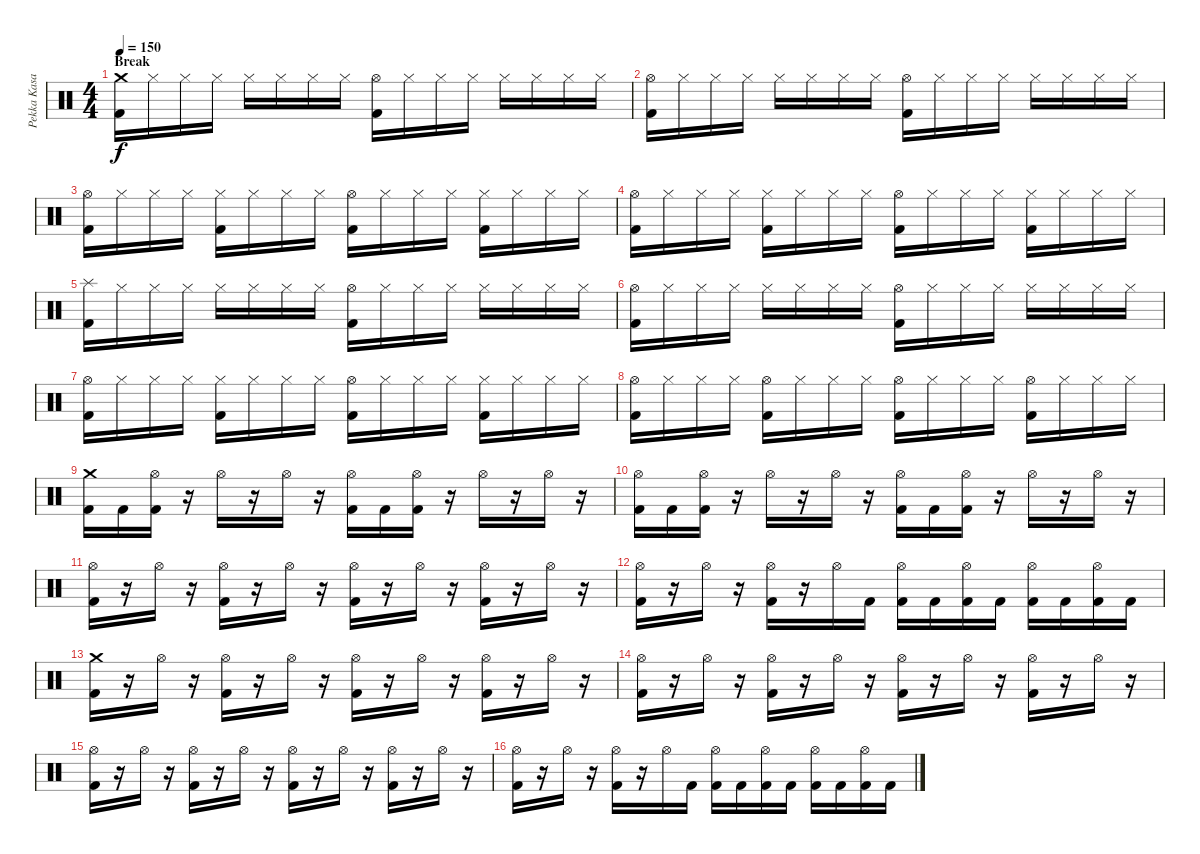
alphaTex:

\track ("Pekka Kasari" "Pekka Kasa") {instrument percussion}
\staff {score}
\articulation defaults
\ts (4 4)
\section ("" "Break")
\tempo 150
\clef neutral
\ks c
("Crash medium (hit)" "Kick (hit) 2").16{dy f} "Hi-Hat (closed)".16 "Hi-Hat (closed)".16 "Hi-Hat (closed)".16 "Hi-Hat (closed)".16 "Hi-Hat (closed)".16 "Hi-Hat (closed)".16 "Hi-Hat (closed)".16 ("Hi-Hat (open)" "Kick (hit) 2").16 "Hi-Hat (closed)".16 "Hi-Hat (closed)".16 "Hi-Hat (closed)".16 "Hi-Hat (closed)".16 "Hi-Hat (closed)".16 "Hi-Hat (closed)".16 "Hi-Hat (closed)".16 |
("Hi-Hat (open)" "Kick (hit) 2").16 "Hi-Hat (closed)".16 "Hi-Hat (closed)".16 "Hi-Hat (closed)".16 "Hi-Hat (closed)".16 "Hi-Hat (closed)".16 "Hi-Hat (closed)".16 "Hi-Hat (closed)".16 ("Hi-Hat (open)" "Kick (hit) 2").16 "Hi-Hat (closed)".16 "Hi-Hat (closed)".16 "Hi-Hat (closed)".16 "Hi-Hat (closed)".16 "Hi-Hat (closed)".16 "Hi-Hat (closed)".16 "Hi-Hat (closed)".16 |
("Hi-Hat (open)" "Kick (hit) 2").16 "Hi-Hat (closed)".16 "Hi-Hat (closed)".16 "Hi-Hat (closed)".16 ("Hi-Hat (closed)" "Kick (hit) 2").16 "Hi-Hat (closed)".16 "Hi-Hat (closed)".16 "Hi-Hat (closed)".16 ("Hi-Hat (open)" "Kick (hit) 2").16 "Hi-Hat (closed)".16 "Hi-Hat (closed)".16 "Hi-Hat (closed)".16 ("Hi-Hat (closed)" "Kick (hit) 2").16 "Hi-Hat (closed)".16 "Hi-Hat (closed)".16 "Hi-Hat (closed)".16 |
("Hi-Hat (open)" "Kick (hit) 2").16 "Hi-Hat (closed)".16 "Hi-Hat (closed)".16 "Hi-Hat (closed)".16 ("Hi-Hat (closed)" "Kick (hit) 2").16 "Hi-Hat (closed)".16 "Hi-Hat (closed)".16 "Hi-Hat (closed)".16 ("Hi-Hat (open)" "Kick (hit) 2").16 "Hi-Hat (closed)".16 "Hi-Hat (closed)".16 "Hi-Hat (closed)".16 ("Hi-Hat (closed)" "Kick (hit) 2").16 "Hi-Hat (closed)".16 "Hi-Hat (closed)".16 "Hi-Hat (closed)".16 |
("Splash (hit)" "Kick (hit) 2").16 "Hi-Hat (closed)".16 "Hi-Hat (closed)".16 "Hi-Hat (closed)".16 "Hi-Hat (closed)".16 "Hi-Hat (closed)".16 "Hi-Hat (closed)".16 "Hi-Hat (closed)".16 ("Hi-Hat (open)" "Kick (hit) 2").16 "Hi-Hat (closed)".16 "Hi-Hat (closed)".16 "Hi-Hat (closed)".16 "Hi-Hat (closed)".16 "Hi-Hat (closed)".16 "Hi-Hat (closed)".16 "Hi-Hat (closed)".16 |
("Hi-Hat (open)" "Kick (hit) 2").16 "Hi-Hat (closed)".16 "Hi-Hat (closed)".16 "Hi-Hat (closed)".16 "Hi-Hat (closed)".16 "Hi-Hat (closed)".16 "Hi-Hat (closed)".16 "Hi-Hat (closed)".16 ("Hi-Hat (open)" "Kick (hit) 2").16 "Hi-Hat (closed)".16 "Hi-Hat (closed)".16 "Hi-Hat (closed)".16 "Hi-Hat (closed)".16 "Hi-Hat (closed)".16 "Hi-Hat (closed)".16 "Hi-Hat (closed)".16 |
("Hi-Hat (open)" "Kick (hit) 2").16 "Hi-Hat (closed)".16 "Hi-Hat (closed)".16 "Hi-Hat (closed)".16 ("Hi-Hat (closed)" "Kick (hit) 2").16 "Hi-Hat (closed)".16 "Hi-Hat (closed)".16 "Hi-Hat (closed)".16 ("Hi-Hat (open)" "Kick (hit) 2").16 "Hi-Hat (closed)".16 "Hi-Hat (closed)".16 "Hi-Hat (closed)".16 ("Hi-Hat (closed)" "Kick (hit) 2").16 "Hi-Hat (closed)".16 "Hi-Hat (closed)".16 "Hi-Hat (closed)".16 |
("Hi-Hat (open)" "Kick (hit) 2").16 "Hi-Hat (closed)".16 "Hi-Hat (closed)".16 "Hi-Hat (closed)".16 ("Hi-Hat (open)" "Kick (hit) 2").16 "Hi-Hat (closed)".16 "Hi-Hat (closed)".16 "Hi-Hat (closed)".16 ("Hi-Hat (open)" "Kick (hit) 2").16 "Hi-Hat (closed)".16 "Hi-Hat (closed)".16 "Hi-Hat (closed)".16 ("Hi-Hat (open)" "Kick (hit) 2").16 "Hi-Hat (closed)".16 "Hi-Hat (closed)".16 "Hi-Hat (closed)".16 |
\section ("" "")
("Crash medium (hit)" "Kick (hit) 2").16 "Kick (hit) 2".16 ("Hi-Hat (open)" "Kick (hit) 2").16 r.16 "Hi-Hat (open)".16 r.16 "Hi-Hat (open)".16 r.16 ("Hi-Hat (open)" "Kick (hit) 2").16 "Kick (hit) 2".16 ("Hi-Hat (open)" "Kick (hit) 2").16 r.16 "Hi-Hat (open)".16 r.16 "Hi-Hat (open)".16 r.16 |
("Hi-Hat (open)" "Kick (hit) 2").16 "Kick (hit) 2".16 ("Hi-Hat (open)" "Kick (hit) 2").16 r.16 "Hi-Hat (open)".16 r.16 "Hi-Hat (open)".16 r.16 ("Hi-Hat (open)" "Kick (hit) 2").16 "Kick (hit) 2".16 ("Hi-Hat (open)" "Kick (hit) 2").16 r.16 "Hi-Hat (open)".16 r.16 "Hi-Hat (open)".16 r.16 |
("Hi-Hat (open)" "Kick (hit) 2").16 r.16 "Hi-Hat (open)".16 r.16 ("Hi-Hat (open)" "Kick (hit) 2").16 r.16 "Hi-Hat (open)".16 r.16 ("Hi-Hat (open)" "Kick (hit) 2").16 r.16 "Hi-Hat (open)".16 r.16 ("Hi-Hat (open)" "Kick (hit) 2").16 r.16 "Hi-Hat (open)".16 r.16 |
("Hi-Hat (open)" "Kick (hit) 2").16 r.16 "Hi-Hat (open)".16 r.16 ("Hi-Hat (open)" "Kick (hit) 2").16 r.16 "Hi-Hat (open)".16 "Kick (hit) 2".16 ("Hi-Hat (open)" "Kick (hit) 2").16 "Kick (hit) 2".16 ("Hi-Hat (open)" "Kick (hit) 2").16 "Kick (hit) 2".16 ("Hi-Hat (open)" "Kick (hit) 2").16 "Kick (hit) 2".16 ("Hi-Hat (open)" "Kick (hit) 2").16 "Kick (hit) 2".16 |
("Crash medium (hit)" "Kick (hit) 2").16 r.16 "Hi-Hat (open)".16 r.16 ("Hi-Hat (open)" "Kick (hit) 2").16 r.16 "Hi-Hat (open)".16 r.16 ("Hi-Hat (open)" "Kick (hit) 2").16 r.16 "Hi-Hat (open)".16 r.16 ("Hi-Hat (open)" "Kick (hit) 2").16 r.16 "Hi-Hat (open)".16 r.16 |
("Hi-Hat (open)" "Kick (hit) 2").16 r.16 "Hi-Hat (open)".16 r.16 ("Hi-Hat (open)" "Kick (hit) 2").16 r.16 "Hi-Hat (open)".16 r.16 ("Hi-Hat (open)" "Kick (hit) 2").16 r.16 "Hi-Hat (open)".16 r.16 ("Hi-Hat (open)" "Kick (hit) 2").16 r.16 "Hi-Hat (open)".16 r.16 |
("Hi-Hat (open)" "Kick (hit) 2").16 r.16 "Hi-Hat (open)".16 r.16 ("Hi-Hat (open)" "Kick (hit) 2").16 r.16 "Hi-Hat (open)".16 r.16 ("Hi-Hat (open)" "Kick (hit) 2").16 r.16 "Hi-Hat (open)".16 r.16 ("Hi-Hat (open)" "Kick (hit) 2").16 r.16 "Hi-Hat (open)".16 r.16 |
("Hi-Hat (open)" "Kick (hit) 2").16 r.16 "Hi-Hat (open)".16 r.16 ("Hi-Hat (open)" "Kick (hit) 2").16 r.16 "Hi-Hat (open)".16 "Kick (hit) 2".16 ("Hi-Hat (open)" "Kick (hit) 2").16 "Kick (hit) 2".16 ("Hi-Hat (open)" "Kick (hit) 2").16 "Kick (hit) 2".16 ("Hi-Hat (open)" "Kick (hit) 2").16 "Kick (hit) 2".16 ("Hi-Hat (open)" "Kick (hit) 2").16 "Kick (hit) 2".16
